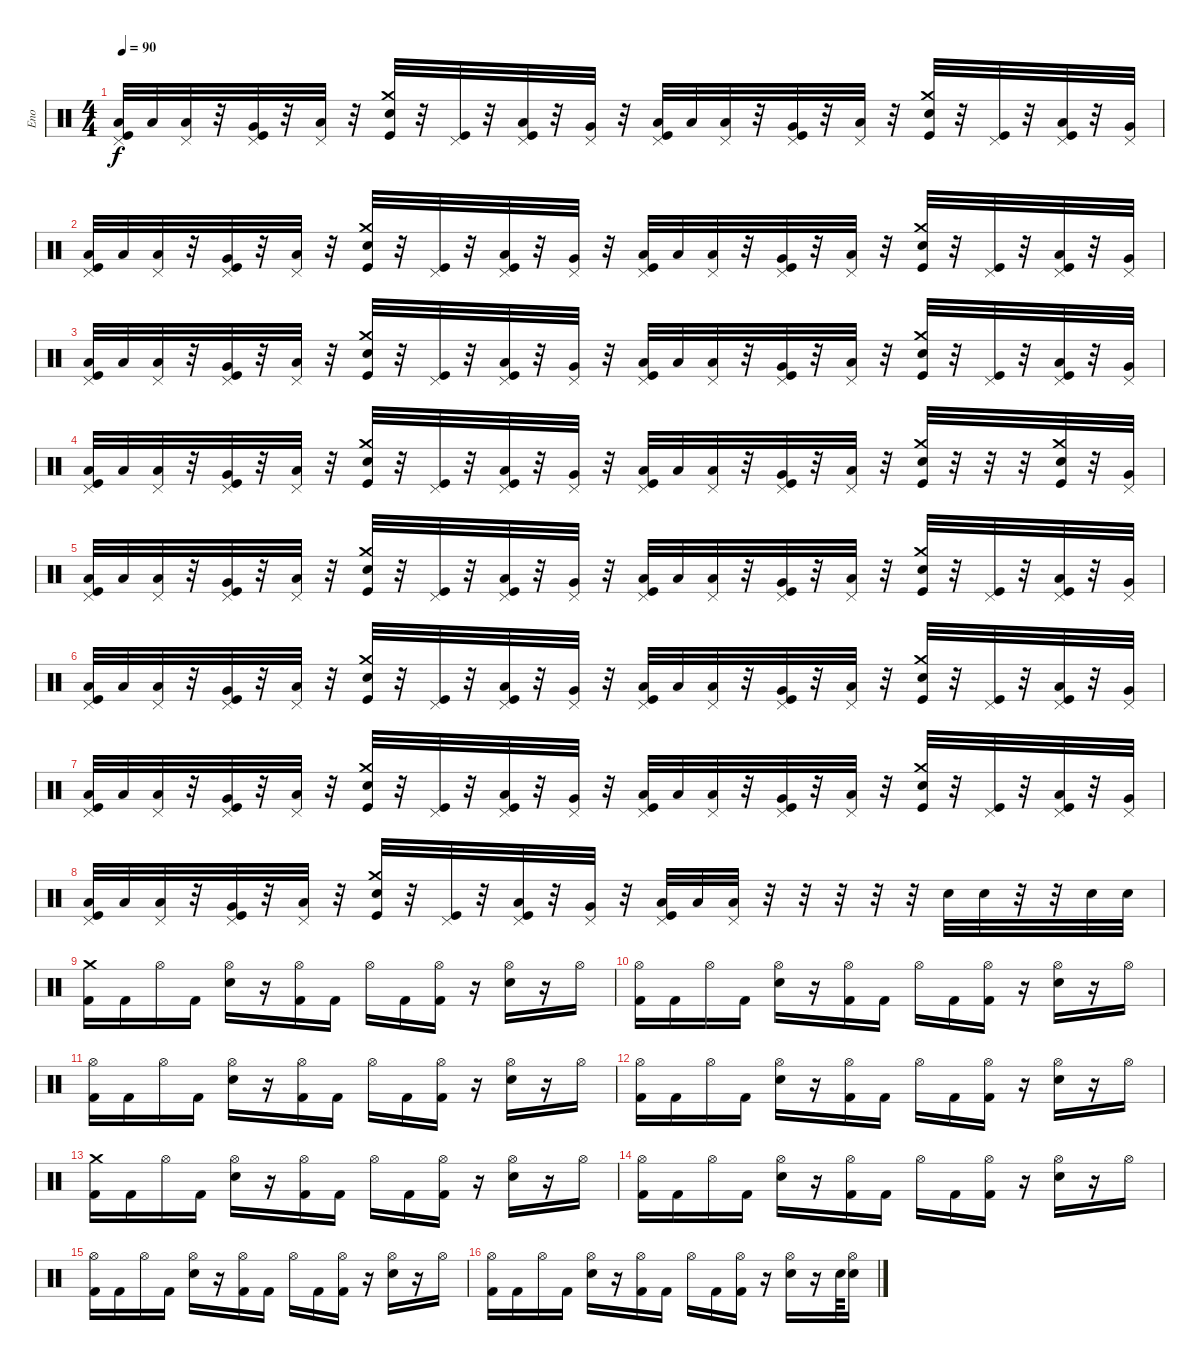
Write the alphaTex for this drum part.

\track ("Eno" "Eno") {instrument percussion}
\staff {score}
\articulation defaults
\ts (4 4)
\tempo 90
\clef neutral
\ks c
("Pedal Hi-Hat (hit)" "Low Floor Tom (hit)" "Kick (hit)").32{dy f} "Low Floor Tom (hit)".32 ("Pedal Hi-Hat (hit)" "Low Floor Tom (hit)").32 r.32 ("Pedal Hi-Hat (hit)" "Very Low Tom (hit)" "Kick (hit)").32 r.32 ("Pedal Hi-Hat (hit)" "Low Floor Tom (hit)").32 r.32 ("Crash medium (hit)" "Electric Snare (hit)" "Kick (hit)").32 r.32 ("Pedal Hi-Hat (hit)" "Kick (hit)").32 r.32 ("Pedal Hi-Hat (hit)" "Low Tom (hit)" "Kick (hit)").32 r.32 ("Pedal Hi-Hat (hit)" "Very Low Tom (hit)").32 r.32 ("Pedal Hi-Hat (hit)" "Low Floor Tom (hit)" "Kick (hit)").32 "Low Floor Tom (hit)".32 ("Pedal Hi-Hat (hit)" "Low Floor Tom (hit)").32 r.32 ("Pedal Hi-Hat (hit)" "Very Low Tom (hit)" "Kick (hit)").32 r.32 ("Pedal Hi-Hat (hit)" "Low Floor Tom (hit)").32 r.32 ("Crash medium (hit)" "Electric Snare (hit)" "Kick (hit)").32 r.32 ("Pedal Hi-Hat (hit)" "Kick (hit)").32 r.32 ("Pedal Hi-Hat (hit)" "Low Tom (hit)" "Kick (hit)").32 r.32 ("Pedal Hi-Hat (hit)" "Very Low Tom (hit)").32 |
("Pedal Hi-Hat (hit)" "Low Floor Tom (hit)" "Kick (hit)").32 "Low Floor Tom (hit)".32 ("Pedal Hi-Hat (hit)" "Low Floor Tom (hit)").32 r.32 ("Pedal Hi-Hat (hit)" "Very Low Tom (hit)" "Kick (hit)").32 r.32 ("Pedal Hi-Hat (hit)" "Low Floor Tom (hit)").32 r.32 ("Crash medium (hit)" "Electric Snare (hit)" "Kick (hit)").32 r.32 ("Pedal Hi-Hat (hit)" "Kick (hit)").32 r.32 ("Pedal Hi-Hat (hit)" "Low Tom (hit)" "Kick (hit)").32 r.32 ("Pedal Hi-Hat (hit)" "Very Low Tom (hit)").32 r.32 ("Pedal Hi-Hat (hit)" "Low Floor Tom (hit)" "Kick (hit)").32 "Low Floor Tom (hit)".32 ("Pedal Hi-Hat (hit)" "Low Floor Tom (hit)").32 r.32 ("Pedal Hi-Hat (hit)" "Very Low Tom (hit)" "Kick (hit)").32 r.32 ("Pedal Hi-Hat (hit)" "Low Floor Tom (hit)").32 r.32 ("Crash medium (hit)" "Electric Snare (hit)" "Kick (hit)").32 r.32 ("Pedal Hi-Hat (hit)" "Kick (hit)").32 r.32 ("Pedal Hi-Hat (hit)" "Low Tom (hit)" "Kick (hit)").32 r.32 ("Pedal Hi-Hat (hit)" "Very Low Tom (hit)").32 |
("Pedal Hi-Hat (hit)" "Low Floor Tom (hit)" "Kick (hit)").32 "Low Floor Tom (hit)".32 ("Pedal Hi-Hat (hit)" "Low Floor Tom (hit)").32 r.32 ("Pedal Hi-Hat (hit)" "Very Low Tom (hit)" "Kick (hit)").32 r.32 ("Pedal Hi-Hat (hit)" "Low Floor Tom (hit)").32 r.32 ("Crash medium (hit)" "Electric Snare (hit)" "Kick (hit)").32 r.32 ("Pedal Hi-Hat (hit)" "Kick (hit)").32 r.32 ("Pedal Hi-Hat (hit)" "Low Tom (hit)" "Kick (hit)").32 r.32 ("Pedal Hi-Hat (hit)" "Very Low Tom (hit)").32 r.32 ("Pedal Hi-Hat (hit)" "Low Floor Tom (hit)" "Kick (hit)").32 "Low Floor Tom (hit)".32 ("Pedal Hi-Hat (hit)" "Low Floor Tom (hit)").32 r.32 ("Pedal Hi-Hat (hit)" "Very Low Tom (hit)" "Kick (hit)").32 r.32 ("Pedal Hi-Hat (hit)" "Low Floor Tom (hit)").32 r.32 ("Crash medium (hit)" "Electric Snare (hit)" "Kick (hit)").32 r.32 ("Pedal Hi-Hat (hit)" "Kick (hit)").32 r.32 ("Pedal Hi-Hat (hit)" "Low Tom (hit)" "Kick (hit)").32 r.32 ("Pedal Hi-Hat (hit)" "Very Low Tom (hit)").32 |
("Pedal Hi-Hat (hit)" "Low Floor Tom (hit)" "Kick (hit)").32 "Low Floor Tom (hit)".32 ("Pedal Hi-Hat (hit)" "Low Floor Tom (hit)").32 r.32 ("Pedal Hi-Hat (hit)" "Very Low Tom (hit)" "Kick (hit)").32 r.32 ("Pedal Hi-Hat (hit)" "Low Floor Tom (hit)").32 r.32 ("Crash medium (hit)" "Electric Snare (hit)" "Kick (hit)").32 r.32 ("Pedal Hi-Hat (hit)" "Kick (hit)").32 r.32 ("Pedal Hi-Hat (hit)" "Low Tom (hit)" "Kick (hit)").32 r.32 ("Pedal Hi-Hat (hit)" "Very Low Tom (hit)").32 r.32 ("Pedal Hi-Hat (hit)" "Low Floor Tom (hit)" "Kick (hit)").32 "Low Floor Tom (hit)".32 ("Pedal Hi-Hat (hit)" "Low Floor Tom (hit)").32 r.32 ("Pedal Hi-Hat (hit)" "Very Low Tom (hit)" "Kick (hit)").32 r.32 ("Pedal Hi-Hat (hit)" "Low Floor Tom (hit)").32 r.32 ("Crash medium (hit)" "Electric Snare (hit)" "Kick (hit)").32 r.32 r.32 r.32 ("Crash medium (hit)" "Electric Snare (hit)" "Kick (hit)").32 r.32 ("Pedal Hi-Hat (hit)" "Very Low Tom (hit)").32 |
("Pedal Hi-Hat (hit)" "Low Floor Tom (hit)" "Kick (hit)").32 "Low Floor Tom (hit)".32 ("Pedal Hi-Hat (hit)" "Low Floor Tom (hit)").32 r.32 ("Pedal Hi-Hat (hit)" "Very Low Tom (hit)" "Kick (hit)").32 r.32 ("Pedal Hi-Hat (hit)" "Low Floor Tom (hit)").32 r.32 ("Crash medium (hit)" "Electric Snare (hit)" "Kick (hit)").32 r.32 ("Pedal Hi-Hat (hit)" "Kick (hit)").32 r.32 ("Pedal Hi-Hat (hit)" "Low Tom (hit)" "Kick (hit)").32 r.32 ("Pedal Hi-Hat (hit)" "Very Low Tom (hit)").32 r.32 ("Pedal Hi-Hat (hit)" "Low Floor Tom (hit)" "Kick (hit)").32 "Low Floor Tom (hit)".32 ("Pedal Hi-Hat (hit)" "Low Floor Tom (hit)").32 r.32 ("Pedal Hi-Hat (hit)" "Very Low Tom (hit)" "Kick (hit)").32 r.32 ("Pedal Hi-Hat (hit)" "Low Floor Tom (hit)").32 r.32 ("Crash medium (hit)" "Electric Snare (hit)" "Kick (hit)").32 r.32 ("Pedal Hi-Hat (hit)" "Kick (hit)").32 r.32 ("Pedal Hi-Hat (hit)" "Low Tom (hit)" "Kick (hit)").32 r.32 ("Pedal Hi-Hat (hit)" "Very Low Tom (hit)").32 |
("Pedal Hi-Hat (hit)" "Low Floor Tom (hit)" "Kick (hit)").32 "Low Floor Tom (hit)".32 ("Pedal Hi-Hat (hit)" "Low Floor Tom (hit)").32 r.32 ("Pedal Hi-Hat (hit)" "Very Low Tom (hit)" "Kick (hit)").32 r.32 ("Pedal Hi-Hat (hit)" "Low Floor Tom (hit)").32 r.32 ("Crash medium (hit)" "Electric Snare (hit)" "Kick (hit)").32 r.32 ("Pedal Hi-Hat (hit)" "Kick (hit)").32 r.32 ("Pedal Hi-Hat (hit)" "Low Tom (hit)" "Kick (hit)").32 r.32 ("Pedal Hi-Hat (hit)" "Very Low Tom (hit)").32 r.32 ("Pedal Hi-Hat (hit)" "Low Floor Tom (hit)" "Kick (hit)").32 "Low Floor Tom (hit)".32 ("Pedal Hi-Hat (hit)" "Low Floor Tom (hit)").32 r.32 ("Pedal Hi-Hat (hit)" "Very Low Tom (hit)" "Kick (hit)").32 r.32 ("Pedal Hi-Hat (hit)" "Low Floor Tom (hit)").32 r.32 ("Crash medium (hit)" "Electric Snare (hit)" "Kick (hit)").32 r.32 ("Pedal Hi-Hat (hit)" "Kick (hit)").32 r.32 ("Pedal Hi-Hat (hit)" "Low Tom (hit)" "Kick (hit)").32 r.32 ("Pedal Hi-Hat (hit)" "Very Low Tom (hit)").32 |
("Pedal Hi-Hat (hit)" "Low Floor Tom (hit)" "Kick (hit)").32 "Low Floor Tom (hit)".32 ("Pedal Hi-Hat (hit)" "Low Floor Tom (hit)").32 r.32 ("Pedal Hi-Hat (hit)" "Very Low Tom (hit)" "Kick (hit)").32 r.32 ("Pedal Hi-Hat (hit)" "Low Floor Tom (hit)").32 r.32 ("Crash medium (hit)" "Electric Snare (hit)" "Kick (hit)").32 r.32 ("Pedal Hi-Hat (hit)" "Kick (hit)").32 r.32 ("Pedal Hi-Hat (hit)" "Low Tom (hit)" "Kick (hit)").32 r.32 ("Pedal Hi-Hat (hit)" "Very Low Tom (hit)").32 r.32 ("Pedal Hi-Hat (hit)" "Low Floor Tom (hit)" "Kick (hit)").32 "Low Floor Tom (hit)".32 ("Pedal Hi-Hat (hit)" "Low Floor Tom (hit)").32 r.32 ("Pedal Hi-Hat (hit)" "Very Low Tom (hit)" "Kick (hit)").32 r.32 ("Pedal Hi-Hat (hit)" "Low Floor Tom (hit)").32 r.32 ("Crash medium (hit)" "Electric Snare (hit)" "Kick (hit)").32 r.32 ("Pedal Hi-Hat (hit)" "Kick (hit)").32 r.32 ("Pedal Hi-Hat (hit)" "Low Tom (hit)" "Kick (hit)").32 r.32 ("Pedal Hi-Hat (hit)" "Very Low Tom (hit)").32 |
("Pedal Hi-Hat (hit)" "Low Floor Tom (hit)" "Kick (hit)").32 "Low Floor Tom (hit)".32 ("Pedal Hi-Hat (hit)" "Low Floor Tom (hit)").32 r.32 ("Pedal Hi-Hat (hit)" "Very Low Tom (hit)" "Kick (hit)").32 r.32 ("Pedal Hi-Hat (hit)" "Low Floor Tom (hit)").32 r.32 ("Crash medium (hit)" "Electric Snare (hit)" "Kick (hit)").32 r.32 ("Pedal Hi-Hat (hit)" "Kick (hit)").32 r.32 ("Pedal Hi-Hat (hit)" "Low Tom (hit)" "Kick (hit)").32 r.32 ("Pedal Hi-Hat (hit)" "Very Low Tom (hit)").32 r.32 ("Pedal Hi-Hat (hit)" "Low Floor Tom (hit)" "Kick (hit)").32 "Low Floor Tom (hit)".32 ("Pedal Hi-Hat (hit)" "Low Floor Tom (hit)").32 r.32 r.32 r.32 r.32 r.32 "Electric Snare (hit)".32 "Electric Snare (hit)".32 r.32 r.32 "Electric Snare (hit)".32 "Electric Snare (hit)".32 |
("Crash medium (hit)" "Kick (hit) 2").16 "Kick (hit) 2".16 "Hi-Hat (open)".16 "Kick (hit) 2".16 ("Hi-Hat (open)" "Snare (hit) 2").16 r.16 ("Hi-Hat (open)" "Kick (hit) 2").16 "Kick (hit) 2".16 "Hi-Hat (open)".16 "Kick (hit) 2".16 ("Hi-Hat (open)" "Kick (hit) 2").16 r.16 ("Hi-Hat (open)" "Snare (hit) 2").16 r.16 "Hi-Hat (open)".16 |
("Hi-Hat (open)" "Kick (hit) 2").16 "Kick (hit) 2".16 "Hi-Hat (open)".16 "Kick (hit) 2".16 ("Hi-Hat (open)" "Snare (hit) 2").16 r.16 ("Hi-Hat (open)" "Kick (hit) 2").16 "Kick (hit) 2".16 "Hi-Hat (open)".16 "Kick (hit) 2".16 ("Hi-Hat (open)" "Kick (hit) 2").16 r.16 ("Hi-Hat (open)" "Snare (hit) 2").16 r.16 "Hi-Hat (open)".16 |
("Hi-Hat (open)" "Kick (hit) 2").16 "Kick (hit) 2".16 "Hi-Hat (open)".16 "Kick (hit) 2".16 ("Hi-Hat (open)" "Snare (hit) 2").16 r.16 ("Hi-Hat (open)" "Kick (hit) 2").16 "Kick (hit) 2".16 "Hi-Hat (open)".16 "Kick (hit) 2".16 ("Hi-Hat (open)" "Kick (hit) 2").16 r.16 ("Hi-Hat (open)" "Snare (hit) 2").16 r.16 "Hi-Hat (open)".16 |
("Hi-Hat (open)" "Kick (hit) 2").16 "Kick (hit) 2".16 "Hi-Hat (open)".16 "Kick (hit) 2".16 ("Hi-Hat (open)" "Snare (hit) 2").16 r.16 ("Hi-Hat (open)" "Kick (hit) 2").16 "Kick (hit) 2".16 "Hi-Hat (open)".16 "Kick (hit) 2".16 ("Hi-Hat (open)" "Kick (hit) 2").16 r.16 ("Hi-Hat (open)" "Snare (hit) 2").16 r.16 "Hi-Hat (open)".16 |
("Crash medium (hit)" "Kick (hit) 2").16 "Kick (hit) 2".16 "Hi-Hat (open)".16 "Kick (hit) 2".16 ("Hi-Hat (open)" "Snare (hit) 2").16 r.16 ("Hi-Hat (open)" "Kick (hit) 2").16 "Kick (hit) 2".16 "Hi-Hat (open)".16 "Kick (hit) 2".16 ("Hi-Hat (open)" "Kick (hit) 2").16 r.16 ("Hi-Hat (open)" "Snare (hit) 2").16 r.16 "Hi-Hat (open)".16 |
("Hi-Hat (open)" "Kick (hit) 2").16 "Kick (hit) 2".16 "Hi-Hat (open)".16 "Kick (hit) 2".16 ("Hi-Hat (open)" "Snare (hit) 2").16 r.16 ("Hi-Hat (open)" "Kick (hit) 2").16 "Kick (hit) 2".16 "Hi-Hat (open)".16 "Kick (hit) 2".16 ("Hi-Hat (open)" "Kick (hit) 2").16 r.16 ("Hi-Hat (open)" "Snare (hit) 2").16 r.16 "Hi-Hat (open)".16 |
("Hi-Hat (open)" "Kick (hit) 2").16 "Kick (hit) 2".16 "Hi-Hat (open)".16 "Kick (hit) 2".16 ("Hi-Hat (open)" "Snare (hit) 2").16 r.16 ("Hi-Hat (open)" "Kick (hit) 2").16 "Kick (hit) 2".16 "Hi-Hat (open)".16 "Kick (hit) 2".16 ("Hi-Hat (open)" "Kick (hit) 2").16 r.16 ("Hi-Hat (open)" "Snare (hit) 2").16 r.16 "Hi-Hat (open)".16 |
("Hi-Hat (open)" "Kick (hit) 2").16 "Kick (hit) 2".16 "Hi-Hat (open)".16 "Kick (hit) 2".16 ("Hi-Hat (open)" "Snare (hit) 2").16 r.16 ("Hi-Hat (open)" "Kick (hit) 2").16 "Kick (hit) 2".16 "Hi-Hat (open)".16 "Kick (hit) 2".16 ("Hi-Hat (open)" "Kick (hit) 2").16 r.16 ("Hi-Hat (open)" "Snare (hit) 2").16 r.16 "Snare (hit) 2".64 ("Hi-Hat (open)" "Snare (hit) 2").16
